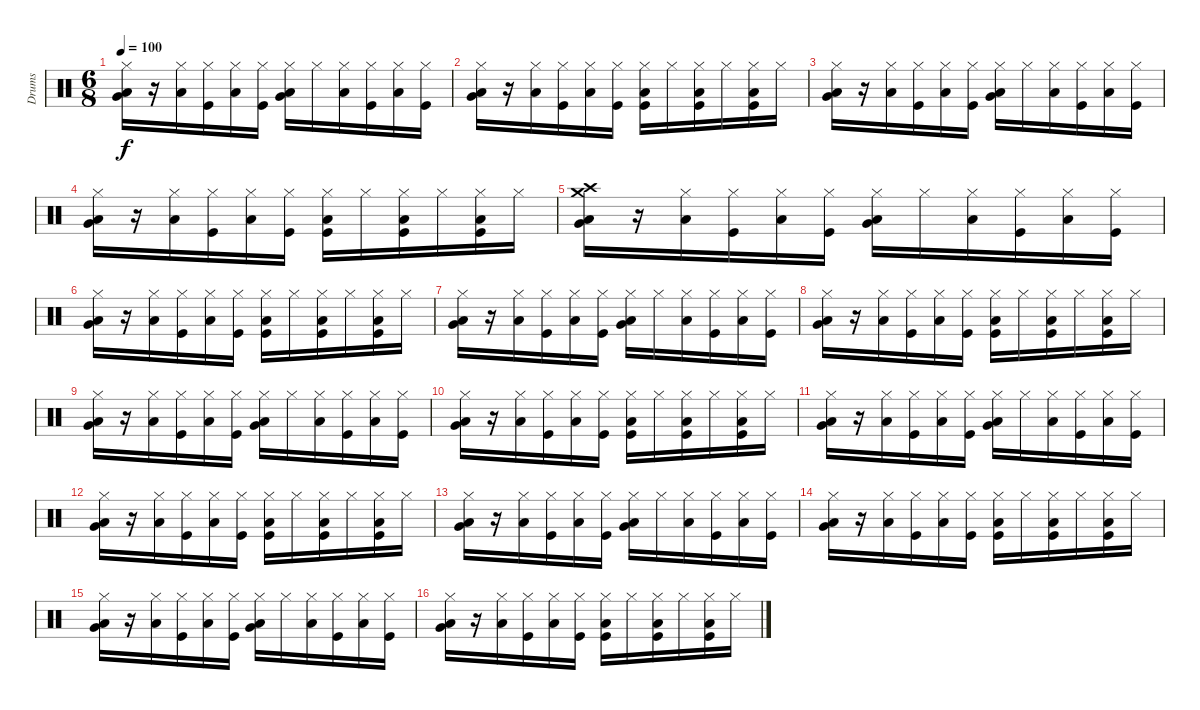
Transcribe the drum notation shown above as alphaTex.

\track ("Drums" "Drums") {instrument percussion}
\staff {score}
\articulation defaults
\ts (6 8)
\tempo 100
\clef neutral
\ks c
("Hi-Hat (closed)" "Low Floor Tom (hit)" "Very Low Tom (hit)").16{dy f} r.16 ("Hi-Hat (closed)" "Low Floor Tom (hit)").16 ("Hi-Hat (closed)" "Kick (hit)").16 ("Hi-Hat (closed)" "Low Floor Tom (hit)").16 ("Hi-Hat (closed)" "Kick (hit)").16 ("Hi-Hat (closed)" "Low Floor Tom (hit)" "Very Low Tom (hit)").16 "Hi-Hat (closed)".16 ("Hi-Hat (closed)" "Low Floor Tom (hit)").16 ("Hi-Hat (closed)" "Kick (hit)").16 ("Hi-Hat (closed)" "Low Floor Tom (hit)").16 ("Hi-Hat (closed)" "Kick (hit)").16 |
("Hi-Hat (closed)" "Low Floor Tom (hit)" "Very Low Tom (hit)").16 r.16 ("Hi-Hat (closed)" "Low Floor Tom (hit)").16 ("Hi-Hat (closed)" "Kick (hit)").16 ("Hi-Hat (closed)" "Low Floor Tom (hit)").16 ("Hi-Hat (closed)" "Kick (hit)").16 ("Hi-Hat (closed)" "Low Floor Tom (hit)" "Kick (hit)").16 "Hi-Hat (closed)".16 ("Hi-Hat (closed)" "Low Floor Tom (hit)" "Kick (hit)").16 "Hi-Hat (closed)".16 ("Hi-Hat (closed)" "Low Floor Tom (hit)" "Kick (hit)").16 "Hi-Hat (closed)".16 |
("Hi-Hat (closed)" "Low Floor Tom (hit)" "Very Low Tom (hit)").16 r.16 ("Hi-Hat (closed)" "Low Floor Tom (hit)").16 ("Hi-Hat (closed)" "Kick (hit)").16 ("Hi-Hat (closed)" "Low Floor Tom (hit)").16 ("Hi-Hat (closed)" "Kick (hit)").16 ("Hi-Hat (closed)" "Low Floor Tom (hit)" "Very Low Tom (hit)").16 "Hi-Hat (closed)".16 ("Hi-Hat (closed)" "Low Floor Tom (hit)").16 ("Hi-Hat (closed)" "Kick (hit)").16 ("Hi-Hat (closed)" "Low Floor Tom (hit)").16 ("Hi-Hat (closed)" "Kick (hit)").16 |
("Hi-Hat (closed)" "Low Floor Tom (hit)" "Very Low Tom (hit)").16 r.16 ("Hi-Hat (closed)" "Low Floor Tom (hit)").16 ("Hi-Hat (closed)" "Kick (hit)").16 ("Hi-Hat (closed)" "Low Floor Tom (hit)").16 ("Hi-Hat (closed)" "Kick (hit)").16 ("Hi-Hat (closed)" "Low Floor Tom (hit)" "Kick (hit)").16 "Hi-Hat (closed)".16 ("Hi-Hat (closed)" "Low Floor Tom (hit)" "Kick (hit)").16 "Hi-Hat (closed)".16 ("Hi-Hat (closed)" "Low Floor Tom (hit)" "Kick (hit)").16 "Hi-Hat (closed)".16 |
("Crash medium (hit)" "Crash high (hit)" "Low Floor Tom (hit)" "Very Low Tom (hit)").16 r.16 ("Hi-Hat (closed)" "Low Floor Tom (hit)").16 ("Hi-Hat (closed)" "Kick (hit)").16 ("Hi-Hat (closed)" "Low Floor Tom (hit)").16 ("Hi-Hat (closed)" "Kick (hit)").16 ("Hi-Hat (closed)" "Low Floor Tom (hit)" "Very Low Tom (hit)").16 "Hi-Hat (closed)".16 ("Hi-Hat (closed)" "Low Floor Tom (hit)").16 ("Hi-Hat (closed)" "Kick (hit)").16 ("Hi-Hat (closed)" "Low Floor Tom (hit)").16 ("Hi-Hat (closed)" "Kick (hit)").16 |
("Hi-Hat (closed)" "Low Floor Tom (hit)" "Very Low Tom (hit)").16 r.16 ("Hi-Hat (closed)" "Low Floor Tom (hit)").16 ("Hi-Hat (closed)" "Kick (hit)").16 ("Hi-Hat (closed)" "Low Floor Tom (hit)").16 ("Hi-Hat (closed)" "Kick (hit)").16 ("Hi-Hat (closed)" "Low Floor Tom (hit)" "Kick (hit)").16 "Hi-Hat (closed)".16 ("Hi-Hat (closed)" "Low Floor Tom (hit)" "Kick (hit)").16 "Hi-Hat (closed)".16 ("Hi-Hat (closed)" "Low Floor Tom (hit)" "Kick (hit)").16 "Hi-Hat (closed)".16 |
("Hi-Hat (closed)" "Low Floor Tom (hit)" "Very Low Tom (hit)").16 r.16 ("Hi-Hat (closed)" "Low Floor Tom (hit)").16 ("Hi-Hat (closed)" "Kick (hit)").16 ("Hi-Hat (closed)" "Low Floor Tom (hit)").16 ("Hi-Hat (closed)" "Kick (hit)").16 ("Hi-Hat (closed)" "Low Floor Tom (hit)" "Very Low Tom (hit)").16 "Hi-Hat (closed)".16 ("Hi-Hat (closed)" "Low Floor Tom (hit)").16 ("Hi-Hat (closed)" "Kick (hit)").16 ("Hi-Hat (closed)" "Low Floor Tom (hit)").16 ("Hi-Hat (closed)" "Kick (hit)").16 |
("Hi-Hat (closed)" "Low Floor Tom (hit)" "Very Low Tom (hit)").16 r.16 ("Hi-Hat (closed)" "Low Floor Tom (hit)").16 ("Hi-Hat (closed)" "Kick (hit)").16 ("Hi-Hat (closed)" "Low Floor Tom (hit)").16 ("Hi-Hat (closed)" "Kick (hit)").16 ("Hi-Hat (closed)" "Low Floor Tom (hit)" "Kick (hit)").16 "Hi-Hat (closed)".16 ("Hi-Hat (closed)" "Low Floor Tom (hit)" "Kick (hit)").16 "Hi-Hat (closed)".16 ("Hi-Hat (closed)" "Low Floor Tom (hit)" "Kick (hit)").16 "Hi-Hat (closed)".16 |
("Hi-Hat (closed)" "Low Floor Tom (hit)" "Very Low Tom (hit)").16 r.16 ("Hi-Hat (closed)" "Low Floor Tom (hit)").16 ("Hi-Hat (closed)" "Kick (hit)").16 ("Hi-Hat (closed)" "Low Floor Tom (hit)").16 ("Hi-Hat (closed)" "Kick (hit)").16 ("Hi-Hat (closed)" "Low Floor Tom (hit)" "Very Low Tom (hit)").16 "Hi-Hat (closed)".16 ("Hi-Hat (closed)" "Low Floor Tom (hit)").16 ("Hi-Hat (closed)" "Kick (hit)").16 ("Hi-Hat (closed)" "Low Floor Tom (hit)").16 ("Hi-Hat (closed)" "Kick (hit)").16 |
("Hi-Hat (closed)" "Low Floor Tom (hit)" "Very Low Tom (hit)").16 r.16 ("Hi-Hat (closed)" "Low Floor Tom (hit)").16 ("Hi-Hat (closed)" "Kick (hit)").16 ("Hi-Hat (closed)" "Low Floor Tom (hit)").16 ("Hi-Hat (closed)" "Kick (hit)").16 ("Hi-Hat (closed)" "Low Floor Tom (hit)" "Kick (hit)").16 "Hi-Hat (closed)".16 ("Hi-Hat (closed)" "Low Floor Tom (hit)" "Kick (hit)").16 "Hi-Hat (closed)".16 ("Hi-Hat (closed)" "Low Floor Tom (hit)" "Kick (hit)").16 "Hi-Hat (closed)".16 |
("Hi-Hat (closed)" "Low Floor Tom (hit)" "Very Low Tom (hit)").16 r.16 ("Hi-Hat (closed)" "Low Floor Tom (hit)").16 ("Hi-Hat (closed)" "Kick (hit)").16 ("Hi-Hat (closed)" "Low Floor Tom (hit)").16 ("Hi-Hat (closed)" "Kick (hit)").16 ("Hi-Hat (closed)" "Low Floor Tom (hit)" "Very Low Tom (hit)").16 "Hi-Hat (closed)".16 ("Hi-Hat (closed)" "Low Floor Tom (hit)").16 ("Hi-Hat (closed)" "Kick (hit)").16 ("Hi-Hat (closed)" "Low Floor Tom (hit)").16 ("Hi-Hat (closed)" "Kick (hit)").16 |
("Hi-Hat (closed)" "Low Floor Tom (hit)" "Very Low Tom (hit)").16 r.16 ("Hi-Hat (closed)" "Low Floor Tom (hit)").16 ("Hi-Hat (closed)" "Kick (hit)").16 ("Hi-Hat (closed)" "Low Floor Tom (hit)").16 ("Hi-Hat (closed)" "Kick (hit)").16 ("Hi-Hat (closed)" "Low Floor Tom (hit)" "Kick (hit)").16 "Hi-Hat (closed)".16 ("Hi-Hat (closed)" "Low Floor Tom (hit)" "Kick (hit)").16 "Hi-Hat (closed)".16 ("Hi-Hat (closed)" "Low Floor Tom (hit)" "Kick (hit)").16 "Hi-Hat (closed)".16 |
("Hi-Hat (closed)" "Low Floor Tom (hit)" "Very Low Tom (hit)").16 r.16 ("Hi-Hat (closed)" "Low Floor Tom (hit)").16 ("Hi-Hat (closed)" "Kick (hit)").16 ("Hi-Hat (closed)" "Low Floor Tom (hit)").16 ("Hi-Hat (closed)" "Kick (hit)").16 ("Hi-Hat (closed)" "Low Floor Tom (hit)" "Very Low Tom (hit)").16 "Hi-Hat (closed)".16 ("Hi-Hat (closed)" "Low Floor Tom (hit)").16 ("Hi-Hat (closed)" "Kick (hit)").16 ("Hi-Hat (closed)" "Low Floor Tom (hit)").16 ("Hi-Hat (closed)" "Kick (hit)").16 |
("Hi-Hat (closed)" "Low Floor Tom (hit)" "Very Low Tom (hit)").16 r.16 ("Hi-Hat (closed)" "Low Floor Tom (hit)").16 ("Hi-Hat (closed)" "Kick (hit)").16 ("Hi-Hat (closed)" "Low Floor Tom (hit)").16 ("Hi-Hat (closed)" "Kick (hit)").16 ("Hi-Hat (closed)" "Low Floor Tom (hit)" "Kick (hit)").16 "Hi-Hat (closed)".16 ("Hi-Hat (closed)" "Low Floor Tom (hit)" "Kick (hit)").16 "Hi-Hat (closed)".16 ("Hi-Hat (closed)" "Low Floor Tom (hit)" "Kick (hit)").16 "Hi-Hat (closed)".16 |
("Hi-Hat (closed)" "Low Floor Tom (hit)" "Very Low Tom (hit)").16 r.16 ("Hi-Hat (closed)" "Low Floor Tom (hit)").16 ("Hi-Hat (closed)" "Kick (hit)").16 ("Hi-Hat (closed)" "Low Floor Tom (hit)").16 ("Hi-Hat (closed)" "Kick (hit)").16 ("Hi-Hat (closed)" "Low Floor Tom (hit)" "Very Low Tom (hit)").16 "Hi-Hat (closed)".16 ("Hi-Hat (closed)" "Low Floor Tom (hit)").16 ("Hi-Hat (closed)" "Kick (hit)").16 ("Hi-Hat (closed)" "Low Floor Tom (hit)").16 ("Hi-Hat (closed)" "Kick (hit)").16 |
("Hi-Hat (closed)" "Low Floor Tom (hit)" "Very Low Tom (hit)").16 r.16 ("Hi-Hat (closed)" "Low Floor Tom (hit)").16 ("Hi-Hat (closed)" "Kick (hit)").16 ("Hi-Hat (closed)" "Low Floor Tom (hit)").16 ("Hi-Hat (closed)" "Kick (hit)").16 ("Hi-Hat (closed)" "Low Floor Tom (hit)" "Kick (hit)").16 "Hi-Hat (closed)".16 ("Hi-Hat (closed)" "Low Floor Tom (hit)" "Kick (hit)").16 "Hi-Hat (closed)".16 ("Hi-Hat (closed)" "Low Floor Tom (hit)" "Kick (hit)").16 "Hi-Hat (closed)".16
